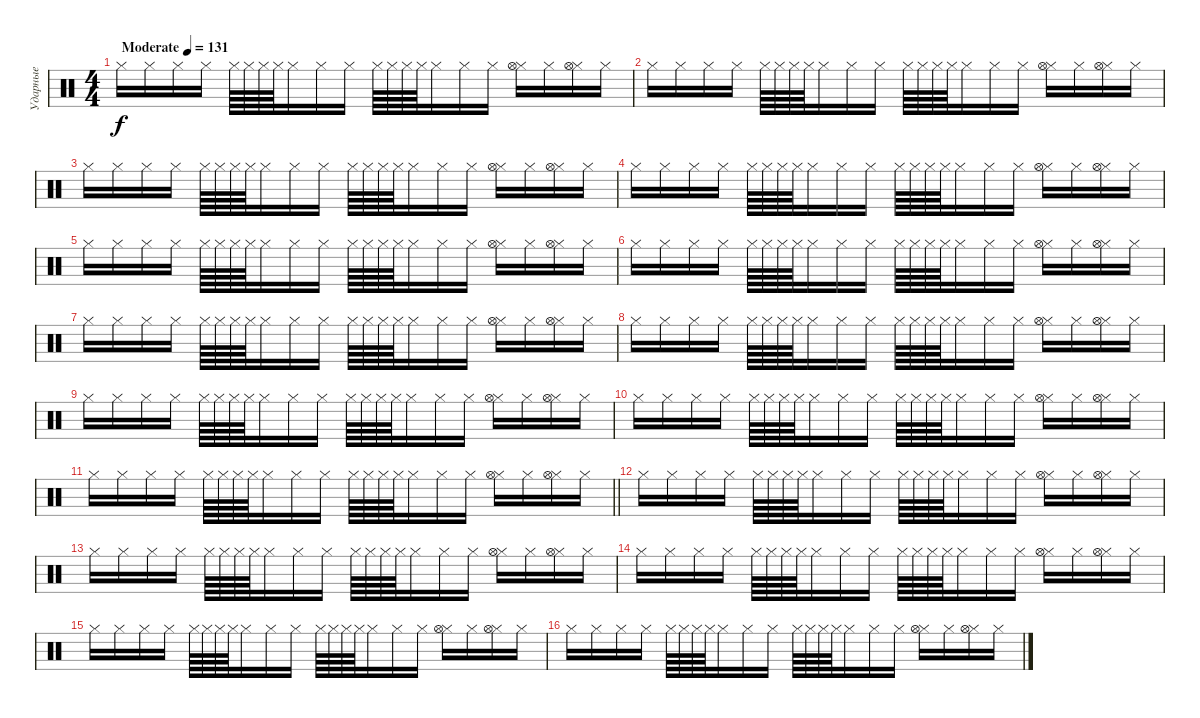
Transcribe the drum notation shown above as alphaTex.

\track ("Ударные" "Ударные") {instrument percussion}
\staff {score}
\articulation defaults
\ts (4 4)
\tempo (131 "Moderate")
\clef neutral
\ks c "Hi-Hat (closed)".16{dy f} "Hi-Hat (closed)".16 "Hi-Hat (closed)".16 "Hi-Hat (closed)".16 "Hi-Hat (closed)".64 "Hi-Hat (closed)".64 "Hi-Hat (closed)".64 "Hi-Hat (closed)".64 "Hi-Hat (closed)".16 "Hi-Hat (closed)".16 "Hi-Hat (closed)".16 "Hi-Hat (closed)".64 "Hi-Hat (closed)".64 "Hi-Hat (closed)".64 "Hi-Hat (closed)".64 "Hi-Hat (closed)".16 "Hi-Hat (closed)".16 "Hi-Hat (closed)".16
("Hi-Hat (closed)" "Hi-Hat (open)").16 "Hi-Hat (closed)".16 ("Hi-Hat (closed)" "Hi-Hat (open)").16 "Hi-Hat (closed)".16 |
"Hi-Hat (closed)".16 "Hi-Hat (closed)".16 "Hi-Hat (closed)".16 "Hi-Hat (closed)".16 "Hi-Hat (closed)".64 "Hi-Hat (closed)".64 "Hi-Hat (closed)".64 "Hi-Hat (closed)".64 "Hi-Hat (closed)".16 "Hi-Hat (closed)".16 "Hi-Hat (closed)".16 "Hi-Hat (closed)".64 "Hi-Hat (closed)".64 "Hi-Hat (closed)".64 "Hi-Hat (closed)".64 "Hi-Hat (closed)".16 "Hi-Hat (closed)".16 "Hi-Hat (closed)".16 ("Hi-Hat (closed)" "Hi-Hat (open)").16 "Hi-Hat (closed)".16 ("Hi-Hat (closed)" "Hi-Hat (open)").16 "Hi-Hat (closed)".16 |
"Hi-Hat (closed)".16 "Hi-Hat (closed)".16 "Hi-Hat (closed)".16 "Hi-Hat (closed)".16 "Hi-Hat (closed)".64 "Hi-Hat (closed)".64 "Hi-Hat (closed)".64 "Hi-Hat (closed)".64 "Hi-Hat (closed)".16 "Hi-Hat (closed)".16 "Hi-Hat (closed)".16 "Hi-Hat (closed)".64 "Hi-Hat (closed)".64 "Hi-Hat (closed)".64 "Hi-Hat (closed)".64 "Hi-Hat (closed)".16 "Hi-Hat (closed)".16 "Hi-Hat (closed)".16 ("Hi-Hat (closed)" "Hi-Hat (open)").16 "Hi-Hat (closed)".16 ("Hi-Hat (closed)" "Hi-Hat (open)").16 "Hi-Hat (closed)".16 |
"Hi-Hat (closed)".16 "Hi-Hat (closed)".16 "Hi-Hat (closed)".16 "Hi-Hat (closed)".16 "Hi-Hat (closed)".64 "Hi-Hat (closed)".64 "Hi-Hat (closed)".64 "Hi-Hat (closed)".64 "Hi-Hat (closed)".16 "Hi-Hat (closed)".16 "Hi-Hat (closed)".16 "Hi-Hat (closed)".64 "Hi-Hat (closed)".64 "Hi-Hat (closed)".64 "Hi-Hat (closed)".64 "Hi-Hat (closed)".16 "Hi-Hat (closed)".16 "Hi-Hat (closed)".16 ("Hi-Hat (closed)" "Hi-Hat (open)").16 "Hi-Hat (closed)".16 ("Hi-Hat (closed)" "Hi-Hat (open)").16 "Hi-Hat (closed)".16 |
"Hi-Hat (closed)".16 "Hi-Hat (closed)".16 "Hi-Hat (closed)".16 "Hi-Hat (closed)".16 "Hi-Hat (closed)".64 "Hi-Hat (closed)".64 "Hi-Hat (closed)".64 "Hi-Hat (closed)".64 "Hi-Hat (closed)".16 "Hi-Hat (closed)".16 "Hi-Hat (closed)".16 "Hi-Hat (closed)".64 "Hi-Hat (closed)".64 "Hi-Hat (closed)".64 "Hi-Hat (closed)".64 "Hi-Hat (closed)".16 "Hi-Hat (closed)".16 "Hi-Hat (closed)".16 ("Hi-Hat (closed)" "Hi-Hat (open)").16 "Hi-Hat (closed)".16 ("Hi-Hat (closed)" "Hi-Hat (open)").16 "Hi-Hat (closed)".16 |
"Hi-Hat (closed)".16 "Hi-Hat (closed)".16 "Hi-Hat (closed)".16 "Hi-Hat (closed)".16 "Hi-Hat (closed)".64 "Hi-Hat (closed)".64 "Hi-Hat (closed)".64 "Hi-Hat (closed)".64 "Hi-Hat (closed)".16 "Hi-Hat (closed)".16 "Hi-Hat (closed)".16 "Hi-Hat (closed)".64 "Hi-Hat (closed)".64 "Hi-Hat (closed)".64 "Hi-Hat (closed)".64 "Hi-Hat (closed)".16 "Hi-Hat (closed)".16 "Hi-Hat (closed)".16 ("Hi-Hat (closed)" "Hi-Hat (open)").16 "Hi-Hat (closed)".16 ("Hi-Hat (closed)" "Hi-Hat (open)").16 "Hi-Hat (closed)".16 |
"Hi-Hat (closed)".16 "Hi-Hat (closed)".16 "Hi-Hat (closed)".16 "Hi-Hat (closed)".16 "Hi-Hat (closed)".64 "Hi-Hat (closed)".64 "Hi-Hat (closed)".64 "Hi-Hat (closed)".64 "Hi-Hat (closed)".16 "Hi-Hat (closed)".16 "Hi-Hat (closed)".16 "Hi-Hat (closed)".64 "Hi-Hat (closed)".64 "Hi-Hat (closed)".64 "Hi-Hat (closed)".64 "Hi-Hat (closed)".16 "Hi-Hat (closed)".16 "Hi-Hat (closed)".16 ("Hi-Hat (closed)" "Hi-Hat (open)").16 "Hi-Hat (closed)".16 ("Hi-Hat (closed)" "Hi-Hat (open)").16 "Hi-Hat (closed)".16 |
"Hi-Hat (closed)".16 "Hi-Hat (closed)".16 "Hi-Hat (closed)".16 "Hi-Hat (closed)".16 "Hi-Hat (closed)".64 "Hi-Hat (closed)".64 "Hi-Hat (closed)".64 "Hi-Hat (closed)".64 "Hi-Hat (closed)".16 "Hi-Hat (closed)".16 "Hi-Hat (closed)".16 "Hi-Hat (closed)".64 "Hi-Hat (closed)".64 "Hi-Hat (closed)".64 "Hi-Hat (closed)".64 "Hi-Hat (closed)".16 "Hi-Hat (closed)".16 "Hi-Hat (closed)".16 ("Hi-Hat (closed)" "Hi-Hat (open)").16 "Hi-Hat (closed)".16 ("Hi-Hat (closed)" "Hi-Hat (open)").16 "Hi-Hat (closed)".16 |
"Hi-Hat (closed)".16 "Hi-Hat (closed)".16 "Hi-Hat (closed)".16 "Hi-Hat (closed)".16 "Hi-Hat (closed)".64 "Hi-Hat (closed)".64 "Hi-Hat (closed)".64 "Hi-Hat (closed)".64 "Hi-Hat (closed)".16 "Hi-Hat (closed)".16 "Hi-Hat (closed)".16 "Hi-Hat (closed)".64 "Hi-Hat (closed)".64 "Hi-Hat (closed)".64 "Hi-Hat (closed)".64 "Hi-Hat (closed)".16 "Hi-Hat (closed)".16 "Hi-Hat (closed)".16 ("Hi-Hat (closed)" "Hi-Hat (open)").16 "Hi-Hat (closed)".16 ("Hi-Hat (closed)" "Hi-Hat (open)").16 "Hi-Hat (closed)".16 |
"Hi-Hat (closed)".16 "Hi-Hat (closed)".16 "Hi-Hat (closed)".16 "Hi-Hat (closed)".16 "Hi-Hat (closed)".64 "Hi-Hat (closed)".64 "Hi-Hat (closed)".64 "Hi-Hat (closed)".64 "Hi-Hat (closed)".16 "Hi-Hat (closed)".16 "Hi-Hat (closed)".16 "Hi-Hat (closed)".64 "Hi-Hat (closed)".64 "Hi-Hat (closed)".64 "Hi-Hat (closed)".64 "Hi-Hat (closed)".16 "Hi-Hat (closed)".16 "Hi-Hat (closed)".16 ("Hi-Hat (closed)" "Hi-Hat (open)").16 "Hi-Hat (closed)".16 ("Hi-Hat (closed)" "Hi-Hat (open)").16 "Hi-Hat (closed)".16 |
\barLineRight lightlight "Hi-Hat (closed)".16 "Hi-Hat (closed)".16 "Hi-Hat (closed)".16 "Hi-Hat (closed)".16 "Hi-Hat (closed)".64 "Hi-Hat (closed)".64 "Hi-Hat (closed)".64 "Hi-Hat (closed)".64 "Hi-Hat (closed)".16 "Hi-Hat (closed)".16 "Hi-Hat (closed)".16 "Hi-Hat (closed)".64 "Hi-Hat (closed)".64 "Hi-Hat (closed)".64 "Hi-Hat (closed)".64 "Hi-Hat (closed)".16 "Hi-Hat (closed)".16 "Hi-Hat (closed)".16
("Hi-Hat (closed)" "Hi-Hat (open)").16 "Hi-Hat (closed)".16 ("Hi-Hat (closed)" "Hi-Hat (open)").16 "Hi-Hat (closed)".16 |
"Hi-Hat (closed)".16 "Hi-Hat (closed)".16 "Hi-Hat (closed)".16 "Hi-Hat (closed)".16 "Hi-Hat (closed)".64 "Hi-Hat (closed)".64 "Hi-Hat (closed)".64 "Hi-Hat (closed)".64 "Hi-Hat (closed)".16 "Hi-Hat (closed)".16 "Hi-Hat (closed)".16 "Hi-Hat (closed)".64 "Hi-Hat (closed)".64 "Hi-Hat (closed)".64 "Hi-Hat (closed)".64 "Hi-Hat (closed)".16 "Hi-Hat (closed)".16 "Hi-Hat (closed)".16 ("Hi-Hat (closed)" "Hi-Hat (open)").16 "Hi-Hat (closed)".16 ("Hi-Hat (closed)" "Hi-Hat (open)").16 "Hi-Hat (closed)".16 |
"Hi-Hat (closed)".16 "Hi-Hat (closed)".16 "Hi-Hat (closed)".16 "Hi-Hat (closed)".16 "Hi-Hat (closed)".64 "Hi-Hat (closed)".64 "Hi-Hat (closed)".64 "Hi-Hat (closed)".64 "Hi-Hat (closed)".16 "Hi-Hat (closed)".16 "Hi-Hat (closed)".16 "Hi-Hat (closed)".64 "Hi-Hat (closed)".64 "Hi-Hat (closed)".64 "Hi-Hat (closed)".64 "Hi-Hat (closed)".16 "Hi-Hat (closed)".16 "Hi-Hat (closed)".16 ("Hi-Hat (closed)" "Hi-Hat (open)").16 "Hi-Hat (closed)".16 ("Hi-Hat (closed)" "Hi-Hat (open)").16 "Hi-Hat (closed)".16 |
"Hi-Hat (closed)".16 "Hi-Hat (closed)".16 "Hi-Hat (closed)".16 "Hi-Hat (closed)".16 "Hi-Hat (closed)".64 "Hi-Hat (closed)".64 "Hi-Hat (closed)".64 "Hi-Hat (closed)".64 "Hi-Hat (closed)".16 "Hi-Hat (closed)".16 "Hi-Hat (closed)".16 "Hi-Hat (closed)".64 "Hi-Hat (closed)".64 "Hi-Hat (closed)".64 "Hi-Hat (closed)".64 "Hi-Hat (closed)".16 "Hi-Hat (closed)".16 "Hi-Hat (closed)".16 ("Hi-Hat (closed)" "Hi-Hat (open)").16 "Hi-Hat (closed)".16 ("Hi-Hat (closed)" "Hi-Hat (open)").16 "Hi-Hat (closed)".16 |
"Hi-Hat (closed)".16 "Hi-Hat (closed)".16 "Hi-Hat (closed)".16 "Hi-Hat (closed)".16 "Hi-Hat (closed)".64 "Hi-Hat (closed)".64 "Hi-Hat (closed)".64 "Hi-Hat (closed)".64 "Hi-Hat (closed)".16 "Hi-Hat (closed)".16 "Hi-Hat (closed)".16 "Hi-Hat (closed)".64 "Hi-Hat (closed)".64 "Hi-Hat (closed)".64 "Hi-Hat (closed)".64 "Hi-Hat (closed)".16 "Hi-Hat (closed)".16 "Hi-Hat (closed)".16 ("Hi-Hat (closed)" "Hi-Hat (open)").16 "Hi-Hat (closed)".16 ("Hi-Hat (closed)" "Hi-Hat (open)").16 "Hi-Hat (closed)".16 |
"Hi-Hat (closed)".16 "Hi-Hat (closed)".16 "Hi-Hat (closed)".16 "Hi-Hat (closed)".16 "Hi-Hat (closed)".64 "Hi-Hat (closed)".64 "Hi-Hat (closed)".64 "Hi-Hat (closed)".64 "Hi-Hat (closed)".16 "Hi-Hat (closed)".16 "Hi-Hat (closed)".16 "Hi-Hat (closed)".64 "Hi-Hat (closed)".64 "Hi-Hat (closed)".64 "Hi-Hat (closed)".64 "Hi-Hat (closed)".16 "Hi-Hat (closed)".16 "Hi-Hat (closed)".16 ("Hi-Hat (closed)" "Hi-Hat (open)").16 "Hi-Hat (closed)".16 ("Hi-Hat (closed)" "Hi-Hat (open)").16 "Hi-Hat (closed)".16
